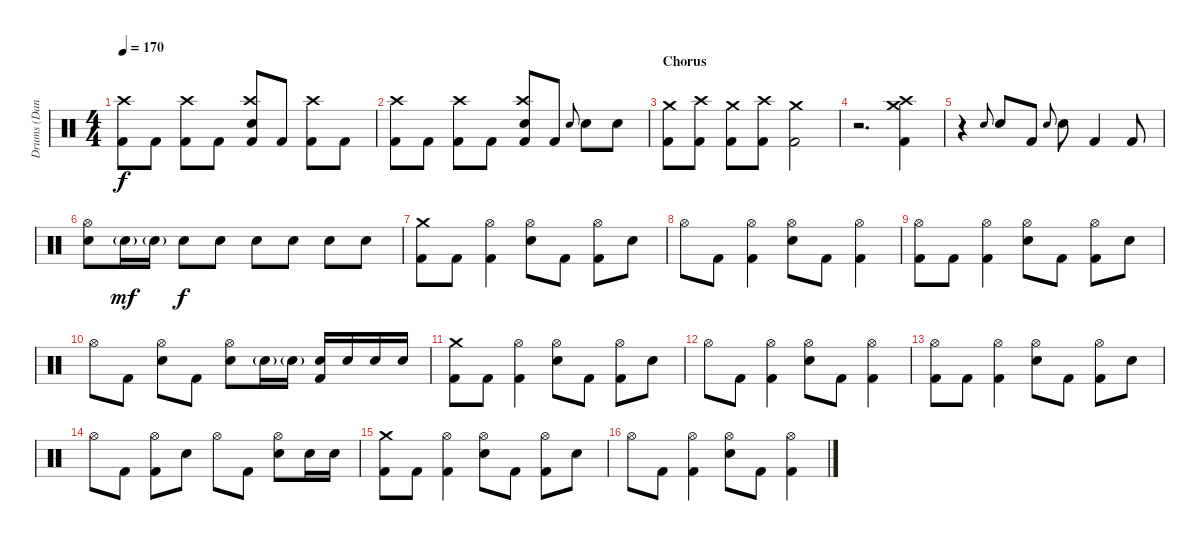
\track ("Drums (Dan Trapp)" "Drums (Dan") {instrument percussion}
\staff {score}
\articulation defaults
\ts (4 4)
\tempo 170
\clef neutral
\ks c
("Kick (hit) 2" "Crash high (hit)").8{dy f} "Kick (hit) 2".8 ("Kick (hit) 2" "Crash high (hit)").8 "Kick (hit) 2".8 ("Kick (hit) 2" "Snare (hit) 2" "Crash high (hit)").8 "Kick (hit) 2".8 ("Kick (hit) 2" "Crash high (hit)").8 "Kick (hit) 2".8 |
("Kick (hit) 2" "Crash high (hit)").8 "Kick (hit) 2".8 ("Kick (hit) 2" "Crash high (hit)").8 "Kick (hit) 2".8 ("Kick (hit) 2" "Snare (hit) 2" "Crash high (hit)").8 "Kick (hit) 2".8 "Snare (hit)".8{gr onbeat} "Snare (hit) 2".8 "Snare (hit) 2".8 |
\section ("" "Chorus")
("Kick (hit) 2" "Crash medium (hit)").8 ("Kick (hit) 2" "Crash high (hit)").8 ("Kick (hit) 2" "Crash medium (hit)").8 ("Kick (hit) 2" "Crash high (hit)").8 ("Kick (hit) 2" "Crash medium (hit)").2 |
r.2{d} ("Kick (hit) 2" "Crash medium (hit)" "Crash high (hit)").4 |
r.4 "Snare (hit)".8{gr onbeat} "Snare (hit) 2".8 "Kick (hit) 2".8 "Snare (hit)".8{gr onbeat} "Snare (hit) 2".8 "Kick (hit) 2".4 "Kick (hit) 2".8 |
("Snare (hit) 2" "Hi-Hat (open)").8 "Snare (hit) 2"{g}.16{dy mf} "Snare (hit) 2"{g}.16 "Snare (hit) 2".8{dy f} "Snare (hit) 2".8 "Snare (hit) 2".8 "Snare (hit) 2".8 "Snare (hit) 2".8 "Snare (hit) 2".8 |
("Kick (hit) 2" "Crash medium (hit)").8 "Kick (hit) 2".8 ("Kick (hit) 2" "Hi-Hat (open)").4 ("Snare (hit) 2" "Hi-Hat (open)").8 "Kick (hit) 2".8 ("Kick (hit) 2" "Hi-Hat (open)").8 "Snare (hit) 2".8 |
"Hi-Hat (open)".8 "Kick (hit) 2".8 ("Kick (hit) 2" "Hi-Hat (open)").4 ("Snare (hit) 2" "Hi-Hat (open)").8 "Kick (hit) 2".8 ("Kick (hit) 2" "Hi-Hat (open)").4 |
("Kick (hit) 2" "Hi-Hat (open)").8 "Kick (hit) 2".8 ("Kick (hit) 2" "Hi-Hat (open)").4 ("Snare (hit) 2" "Hi-Hat (open)").8 "Kick (hit) 2".8 ("Hi-Hat (open)" "Kick (hit) 2").8 "Snare (hit) 2".8 |
"Hi-Hat (open)".8 "Kick (hit) 2".8 ("Hi-Hat (open)" "Snare (hit) 2").8 "Kick (hit) 2".8 ("Snare (hit) 2" "Hi-Hat (open)").8 "Snare (hit) 2"{g}.16 "Snare (hit) 2"{g}.16 ("Snare (hit) 2" "Kick (hit) 2").16 "Snare (hit) 2".16 "Snare (hit) 2".16 "Snare (hit) 2".16 |
("Kick (hit) 2" "Crash medium (hit)").8 "Kick (hit) 2".8 ("Kick (hit) 2" "Hi-Hat (open)").4 ("Snare (hit) 2" "Hi-Hat (open)").8 "Kick (hit) 2".8 ("Kick (hit) 2" "Hi-Hat (open)").8 "Snare (hit) 2".8 |
"Hi-Hat (open)".8 "Kick (hit) 2".8 ("Kick (hit) 2" "Hi-Hat (open)").4 ("Snare (hit) 2" "Hi-Hat (open)").8 "Kick (hit) 2".8 ("Kick (hit) 2" "Hi-Hat (open)").4 |
("Kick (hit) 2" "Hi-Hat (open)").8 "Kick (hit) 2".8 ("Kick (hit) 2" "Hi-Hat (open)").4 ("Snare (hit) 2" "Hi-Hat (open)").8 "Kick (hit) 2".8 ("Kick (hit) 2" "Hi-Hat (open)").8 "Snare (hit) 2".8 |
"Hi-Hat (open)".8 "Kick (hit) 2".8 ("Kick (hit) 2" "Hi-Hat (open)").8 "Snare (hit) 2".8 "Hi-Hat (open)".8 "Kick (hit) 2".8 ("Hi-Hat (open)" "Snare (hit) 2").8 "Snare (hit) 2".16 "Snare (hit) 2".16 |
("Kick (hit) 2" "Crash medium (hit)").8 "Kick (hit) 2".8 ("Kick (hit) 2" "Hi-Hat (open)").4 ("Snare (hit) 2" "Hi-Hat (open)").8 "Kick (hit) 2".8 ("Kick (hit) 2" "Hi-Hat (open)").8 "Snare (hit) 2".8 |
"Hi-Hat (open)".8 "Kick (hit) 2".8 ("Kick (hit) 2" "Hi-Hat (open)").4 ("Snare (hit) 2" "Hi-Hat (open)").8 "Kick (hit) 2".8 ("Kick (hit) 2" "Hi-Hat (open)").4
